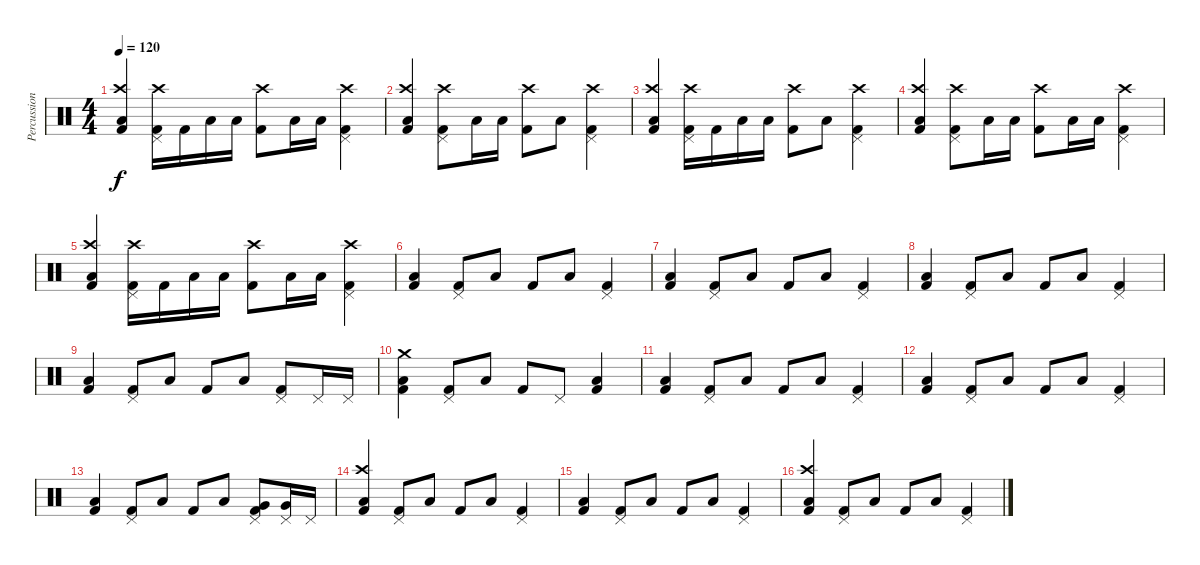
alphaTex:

\track ("Percussions" "Percussion") {instrument percussion}
\staff {score}
\articulation defaults
\ts (4 4)
\tempo 120
\clef neutral
\ks c
("Low Floor Tom (hit)" "Crash high (hit)" "Kick (hit) 2").4{dy f} ("Pedal Hi-Hat (hit)" "Crash high (hit)" "Kick (hit) 2").16 "Kick (hit) 2".16 "Low Floor Tom (hit)".16 "Low Floor Tom (hit)".16 ("Crash high (hit)" "Kick (hit) 2").8 "Low Floor Tom (hit)".16 "Low Floor Tom (hit)".16 ("Pedal Hi-Hat (hit)" "Crash high (hit)" "Kick (hit) 2").4 |
("Low Floor Tom (hit)" "Crash high (hit)" "Kick (hit) 2").4 ("Pedal Hi-Hat (hit)" "Crash high (hit)" "Kick (hit) 2").8 "Low Floor Tom (hit)".16 "Low Floor Tom (hit)".16 ("Crash high (hit)" "Kick (hit) 2").8 "Low Floor Tom (hit)".8 ("Pedal Hi-Hat (hit)" "Crash high (hit)" "Kick (hit) 2").4 |
("Low Floor Tom (hit)" "Crash high (hit)" "Kick (hit) 2").4 ("Pedal Hi-Hat (hit)" "Crash high (hit)" "Kick (hit) 2").16 "Kick (hit) 2".16 "Low Floor Tom (hit)".16 "Low Floor Tom (hit)".16 ("Crash high (hit)" "Kick (hit) 2").8 "Low Floor Tom (hit)".8 ("Pedal Hi-Hat (hit)" "Crash high (hit)" "Kick (hit) 2").4 |
("Low Floor Tom (hit)" "Crash high (hit)" "Kick (hit) 2").4 ("Pedal Hi-Hat (hit)" "Crash high (hit)" "Kick (hit) 2").8 "Low Floor Tom (hit)".16 "Low Floor Tom (hit)".16 ("Crash high (hit)" "Kick (hit) 2").8 "Low Floor Tom (hit)".16 "Low Floor Tom (hit)".16 ("Pedal Hi-Hat (hit)" "Crash high (hit)" "Kick (hit) 2").4 |
("Low Floor Tom (hit)" "Crash high (hit)" "Kick (hit) 2").4 ("Pedal Hi-Hat (hit)" "Crash high (hit)" "Kick (hit) 2").16 "Kick (hit) 2".16 "Low Floor Tom (hit)".16 "Low Floor Tom (hit)".16 ("Crash high (hit)" "Kick (hit) 2").8 "Low Floor Tom (hit)".16 "Low Floor Tom (hit)".16 ("Pedal Hi-Hat (hit)" "Crash high (hit)" "Kick (hit) 2").4 |
("Low Floor Tom (hit)" "Kick (hit) 2").4 ("Pedal Hi-Hat (hit)" "Kick (hit) 2").8 "Low Floor Tom (hit)".8 "Kick (hit) 2".8 "Low Floor Tom (hit)".8 ("Pedal Hi-Hat (hit)" "Kick (hit) 2").4 |
("Low Floor Tom (hit)" "Kick (hit) 2").4 ("Pedal Hi-Hat (hit)" "Kick (hit) 2").8 "Low Floor Tom (hit)".8 "Kick (hit) 2".8 "Low Floor Tom (hit)".8 ("Pedal Hi-Hat (hit)" "Kick (hit) 2").4 |
("Low Floor Tom (hit)" "Kick (hit) 2").4 ("Pedal Hi-Hat (hit)" "Kick (hit) 2").8 "Low Floor Tom (hit)".8 "Kick (hit) 2".8 "Low Floor Tom (hit)".8 ("Pedal Hi-Hat (hit)" "Kick (hit) 2").4 |
("Low Floor Tom (hit)" "Kick (hit) 2").4 ("Pedal Hi-Hat (hit)" "Kick (hit) 2").8 "Low Floor Tom (hit)".8 "Kick (hit) 2".8 "Low Floor Tom (hit)".8 ("Pedal Hi-Hat (hit)" "Kick (hit) 2").8 "Pedal Hi-Hat (hit)".16 "Pedal Hi-Hat (hit)".16 |
("Low Floor Tom (hit)" "Crash medium (hit)" "Kick (hit) 2").4 ("Pedal Hi-Hat (hit)" "Kick (hit) 2").8 "Low Floor Tom (hit)".8 "Kick (hit) 2".8 "Pedal Hi-Hat (hit)".8 ("Low Floor Tom (hit)" "Kick (hit) 2").4 |
("Low Floor Tom (hit)" "Kick (hit) 2").4 ("Pedal Hi-Hat (hit)" "Kick (hit) 2").8 "Low Floor Tom (hit)".8 "Kick (hit) 2".8 "Low Floor Tom (hit)".8 ("Pedal Hi-Hat (hit)" "Kick (hit) 2").4 |
("Low Floor Tom (hit)" "Kick (hit) 2").4 ("Pedal Hi-Hat (hit)" "Kick (hit) 2").8 "Low Floor Tom (hit)".8 "Kick (hit) 2".8 "Low Floor Tom (hit)".8 ("Pedal Hi-Hat (hit)" "Kick (hit) 2").4 |
("Low Floor Tom (hit)" "Kick (hit) 2").4 ("Pedal Hi-Hat (hit)" "Kick (hit) 2").8 "Low Floor Tom (hit)".8 "Kick (hit) 2".8 "Low Floor Tom (hit)".8 ("Pedal Hi-Hat (hit)" "Very Low Tom (hit)" "Kick (hit) 2").8 ("Pedal Hi-Hat (hit)" "Very Low Tom (hit)").16 "Pedal Hi-Hat (hit)".16 |
("Low Floor Tom (hit)" "Crash high (hit)" "Kick (hit) 2").4 ("Pedal Hi-Hat (hit)" "Kick (hit) 2").8 "Low Floor Tom (hit)".8 "Kick (hit) 2".8 "Low Floor Tom (hit)".8 ("Pedal Hi-Hat (hit)" "Kick (hit) 2").4 |
("Low Floor Tom (hit)" "Kick (hit) 2").4 ("Pedal Hi-Hat (hit)" "Kick (hit) 2").8 "Low Floor Tom (hit)".8 "Kick (hit) 2".8 "Low Floor Tom (hit)".8 ("Pedal Hi-Hat (hit)" "Kick (hit) 2").4 |
("Low Floor Tom (hit)" "Crash high (hit)" "Kick (hit) 2").4 ("Pedal Hi-Hat (hit)" "Kick (hit) 2").8 "Low Floor Tom (hit)".8 "Kick (hit) 2".8 "Low Floor Tom (hit)".8 ("Pedal Hi-Hat (hit)" "Kick (hit) 2").4
